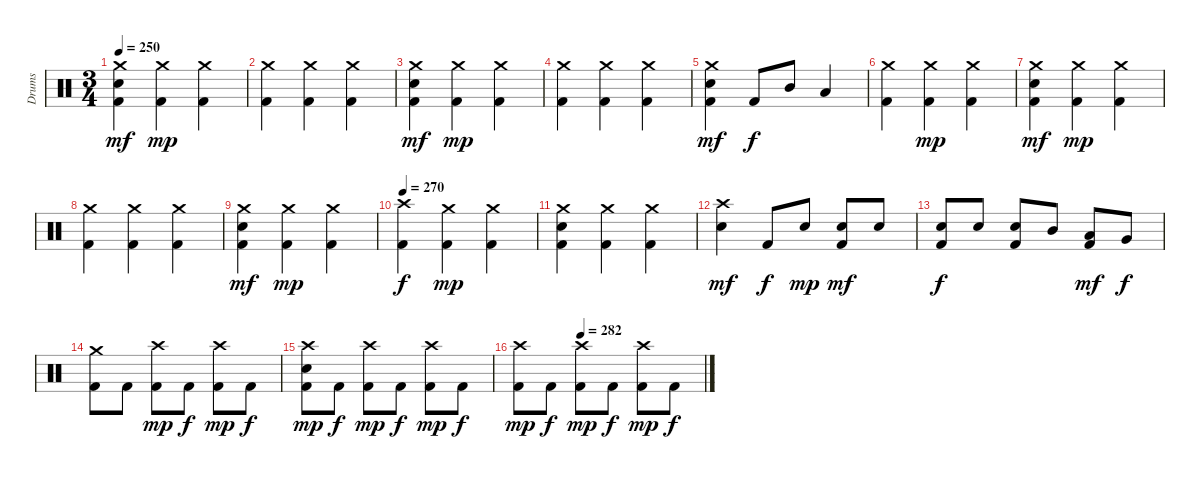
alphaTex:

\track ("Drums" "Drums") {instrument percussion}
\staff {score}
\articulation defaults
\ts (3 4)
\tempo 250
\clef neutral
\ks c
("Crash medium (hit)" "Electric Snare (hit)" "Kick (hit) 2").4{dy mf} ("Crash medium (hit)" "Kick (hit) 2").4{dy mp} ("Crash medium (hit)" "Kick (hit) 2").4 |
("Crash medium (hit)" "Kick (hit) 2").4 ("Crash medium (hit)" "Kick (hit) 2").4 ("Crash medium (hit)" "Kick (hit) 2").4 |
("Crash medium (hit)" "Electric Snare (hit)" "Kick (hit) 2").4{dy mf} ("Crash medium (hit)" "Kick (hit) 2").4{dy mp} ("Crash medium (hit)" "Kick (hit) 2").4 |
("Crash medium (hit)" "Kick (hit) 2").4 ("Crash medium (hit)" "Kick (hit) 2").4 ("Crash medium (hit)" "Kick (hit) 2").4 |
("Crash medium (hit)" "Electric Snare (hit)" "Kick (hit) 2").4{dy mf} "Kick (hit) 2".8{dy f} "Mid Tom (hit)".8 "Low Tom (hit)".4 |
("Crash medium (hit)" "Kick (hit) 2").4 ("Crash medium (hit)" "Kick (hit) 2").4{dy mp} ("Crash medium (hit)" "Kick (hit) 2").4 |
("Crash medium (hit)" "Electric Snare (hit)" "Kick (hit) 2").4{dy mf} ("Crash medium (hit)" "Kick (hit) 2").4{dy mp} ("Crash medium (hit)" "Kick (hit) 2").4 |
("Crash medium (hit)" "Kick (hit) 2").4 ("Crash medium (hit)" "Kick (hit) 2").4 ("Crash medium (hit)" "Kick (hit) 2").4 |
("Crash medium (hit)" "Electric Snare (hit)" "Kick (hit) 2").4{dy mf} ("Crash medium (hit)" "Kick (hit) 2").4{dy mp} ("Crash medium (hit)" "Kick (hit) 2").4 |
\tempo 270
("Crash high (hit)" "Kick (hit) 2").4{dy f} ("Crash medium (hit)" "Kick (hit) 2").4{dy mp} ("Crash medium (hit)" "Kick (hit) 2").4 |
("Crash medium (hit)" "Electric Snare (hit)" "Kick (hit) 2").4 ("Crash medium (hit)" "Kick (hit) 2").4 ("Crash medium (hit)" "Kick (hit) 2").4 |
("Crash high (hit)" "Electric Snare (hit)").4{dy mf} "Kick (hit) 2".8{dy f} "Electric Snare (hit)".8{dy mp} ("Electric Snare (hit)" "Kick (hit) 2").8{dy mf} "Electric Snare (hit)".8 |
("Electric Snare (hit)" "Kick (hit) 2").8{dy f} "Electric Snare (hit)".8 ("Electric Snare (hit)" "Kick (hit) 2").8 "Mid Tom (hit)".8 ("Low Tom (hit)" "Kick (hit) 2").8{dy mf} "Very Low Tom (hit)".8{dy f} |
("Crash medium (hit)" "Kick (hit) 2").8 "Kick (hit) 2".8 ("Crash high (hit)" "Kick (hit) 2").8{dy mp} "Kick (hit) 2".8{dy f} ("Crash high (hit)" "Kick (hit) 2").8{dy mp} "Kick (hit) 2".8{dy f} |
("Crash high (hit)" "Electric Snare (hit)" "Kick (hit) 2").8{dy mp} "Kick (hit) 2".8{dy f} ("Crash high (hit)" "Kick (hit) 2").8{dy mp} "Kick (hit) 2".8{dy f} ("Crash high (hit)" "Kick (hit) 2").8{dy mp} "Kick (hit) 2".8{dy f} |
\tempo (282 0.3333333333333333)
("Crash high (hit)" "Kick (hit) 2").8{dy mp} "Kick (hit) 2".8{dy f} ("Crash high (hit)" "Kick (hit) 2").8{dy mp} "Kick (hit) 2".8{dy f} ("Crash high (hit)" "Kick (hit) 2").8{dy mp} "Kick (hit) 2".8{dy f}
